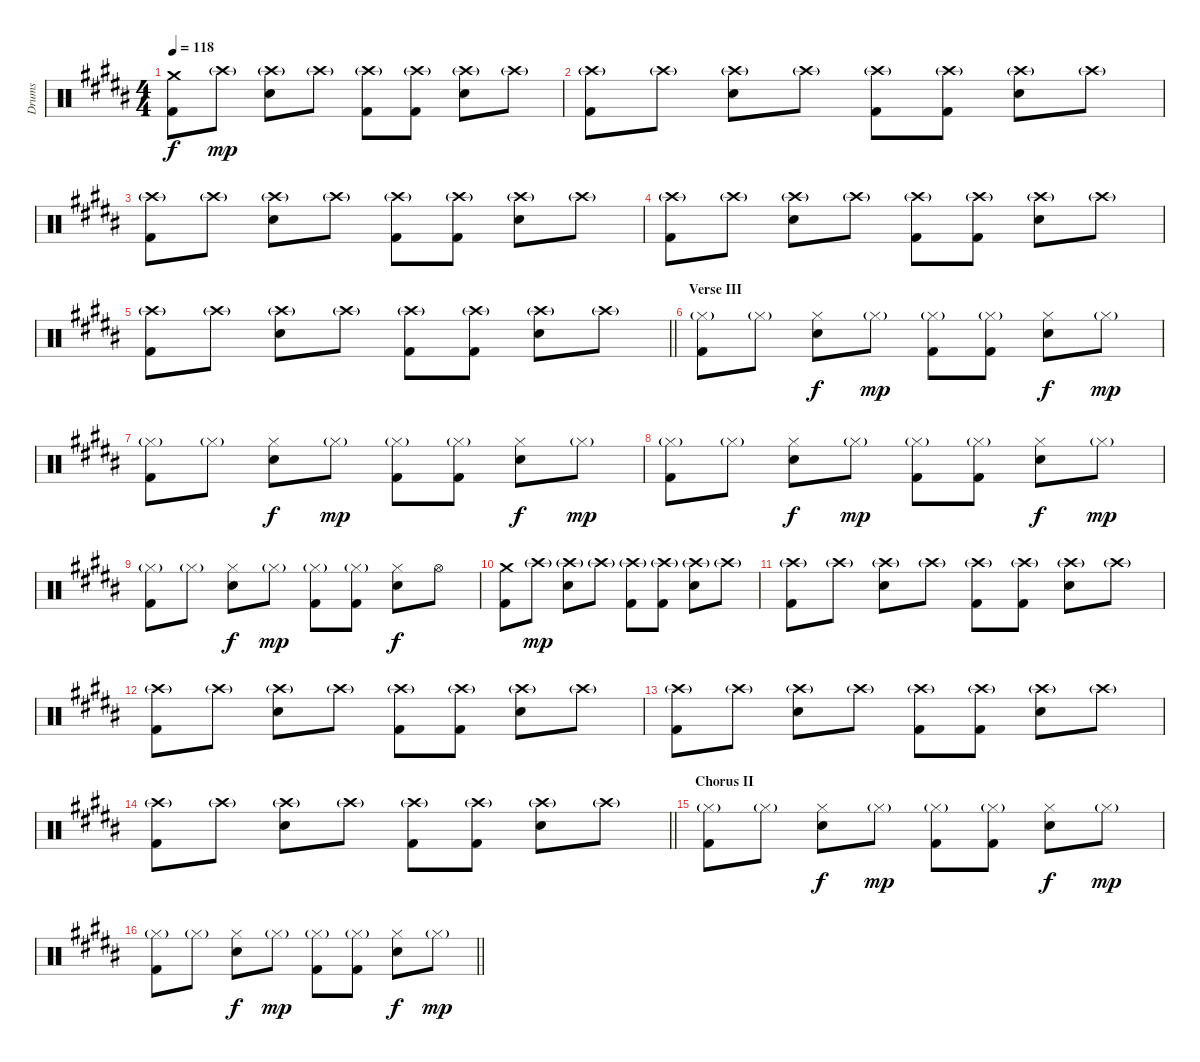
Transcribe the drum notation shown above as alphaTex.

\track ("Drums" "Drums") {instrument percussion}
\staff {score}
\articulation defaults
\ts (4 4)
\tempo 118
\clef neutral
\ks b
("Crash medium (hit)" "Kick (hit) 2").8{dy f} "Crash high (hit)"{g}.8{dy mp} ("Crash high (hit)"{g} "Snare (hit) 2").8 "Crash high (hit)"{g}.8 ("Crash high (hit)"{g} "Kick (hit) 2").8 ("Crash high (hit)"{g} "Kick (hit) 2").8 ("Crash high (hit)"{g} "Snare (hit) 2").8 "Crash high (hit)"{g}.8 |
("Crash high (hit)"{g} "Kick (hit) 2").8 "Crash high (hit)"{g}.8 ("Crash high (hit)"{g} "Snare (hit) 2").8 "Crash high (hit)"{g}.8 ("Crash high (hit)"{g} "Kick (hit) 2").8 ("Crash high (hit)"{g} "Kick (hit) 2").8 ("Crash high (hit)"{g} "Snare (hit) 2").8 "Crash high (hit)"{g}.8 |
("Crash high (hit)"{g} "Kick (hit) 2").8 "Crash high (hit)"{g}.8 ("Crash high (hit)"{g} "Snare (hit) 2").8 "Crash high (hit)"{g}.8 ("Crash high (hit)"{g} "Kick (hit) 2").8 ("Crash high (hit)"{g} "Kick (hit) 2").8 ("Crash high (hit)"{g} "Snare (hit) 2").8 "Crash high (hit)"{g}.8 |
("Crash high (hit)"{g} "Kick (hit) 2").8 "Crash high (hit)"{g}.8 ("Crash high (hit)"{g} "Snare (hit) 2").8 "Crash high (hit)"{g}.8 ("Crash high (hit)"{g} "Kick (hit) 2").8 ("Crash high (hit)"{g} "Kick (hit) 2").8 ("Crash high (hit)"{g} "Snare (hit) 2").8 "Crash high (hit)"{g}.8 |
\barLineRight lightlight
("Crash high (hit)"{g} "Kick (hit) 2").8 "Crash high (hit)"{g}.8 ("Crash high (hit)"{g} "Snare (hit) 2").8 "Crash high (hit)"{g}.8 ("Crash high (hit)"{g} "Kick (hit) 2").8 ("Crash high (hit)"{g} "Kick (hit) 2").8 ("Crash high (hit)"{g} "Snare (hit) 2").8 "Crash high (hit)"{g}.8 |
\section ("" "Verse III")
("Hi-Hat (closed)"{g} "Kick (hit) 2").8 "Hi-Hat (closed)"{g}.8 ("Hi-Hat (closed)" "Snare (hit) 2").8{dy f} "Hi-Hat (closed)"{g}.8{dy mp} ("Hi-Hat (closed)"{g} "Kick (hit) 2").8 ("Hi-Hat (closed)"{g} "Kick (hit) 2").8 ("Hi-Hat (closed)" "Snare (hit) 2").8{dy f} "Hi-Hat (closed)"{g}.8{dy mp} |
("Hi-Hat (closed)"{g} "Kick (hit) 2").8 "Hi-Hat (closed)"{g}.8 ("Hi-Hat (closed)" "Snare (hit) 2").8{dy f} "Hi-Hat (closed)"{g}.8{dy mp} ("Hi-Hat (closed)"{g} "Kick (hit) 2").8 ("Hi-Hat (closed)"{g} "Kick (hit) 2").8 ("Hi-Hat (closed)" "Snare (hit) 2").8{dy f} "Hi-Hat (closed)"{g}.8{dy mp} |
("Hi-Hat (closed)"{g} "Kick (hit) 2").8 "Hi-Hat (closed)"{g}.8 ("Hi-Hat (closed)" "Snare (hit) 2").8{dy f} "Hi-Hat (closed)"{g}.8{dy mp} ("Hi-Hat (closed)"{g} "Kick (hit) 2").8 ("Hi-Hat (closed)"{g} "Kick (hit) 2").8 ("Hi-Hat (closed)" "Snare (hit) 2").8{dy f} "Hi-Hat (closed)"{g}.8{dy mp} |
("Hi-Hat (closed)"{g} "Kick (hit) 2").8 "Hi-Hat (closed)"{g}.8 ("Hi-Hat (closed)" "Snare (hit) 2").8{dy f} "Hi-Hat (closed)"{g}.8{dy mp} ("Hi-Hat (closed)"{g} "Kick (hit) 2").8 ("Hi-Hat (closed)"{g} "Kick (hit) 2").8 ("Hi-Hat (closed)" "Snare (hit) 2").8{dy f} "Hi-Hat (open)".8 |
("Crash medium (hit)" "Kick (hit) 2").8 "Crash high (hit)"{g}.8{dy mp} ("Crash high (hit)"{g} "Snare (hit) 2").8 "Crash high (hit)"{g}.8 ("Crash high (hit)"{g} "Kick (hit) 2").8 ("Crash high (hit)"{g} "Kick (hit) 2").8 ("Crash high (hit)"{g} "Snare (hit) 2").8 "Crash high (hit)"{g}.8 |
("Crash high (hit)"{g} "Kick (hit) 2").8 "Crash high (hit)"{g}.8 ("Crash high (hit)"{g} "Snare (hit) 2").8 "Crash high (hit)"{g}.8 ("Crash high (hit)"{g} "Kick (hit) 2").8 ("Crash high (hit)"{g} "Kick (hit) 2").8 ("Crash high (hit)"{g} "Snare (hit) 2").8 "Crash high (hit)"{g}.8 |
("Crash high (hit)"{g} "Kick (hit) 2").8 "Crash high (hit)"{g}.8 ("Crash high (hit)"{g} "Snare (hit) 2").8 "Crash high (hit)"{g}.8 ("Crash high (hit)"{g} "Kick (hit) 2").8 ("Crash high (hit)"{g} "Kick (hit) 2").8 ("Crash high (hit)"{g} "Snare (hit) 2").8 "Crash high (hit)"{g}.8 |
("Crash high (hit)"{g} "Kick (hit) 2").8 "Crash high (hit)"{g}.8 ("Crash high (hit)"{g} "Snare (hit) 2").8 "Crash high (hit)"{g}.8 ("Crash high (hit)"{g} "Kick (hit) 2").8 ("Crash high (hit)"{g} "Kick (hit) 2").8 ("Crash high (hit)"{g} "Snare (hit) 2").8 "Crash high (hit)"{g}.8 |
\barLineRight lightlight
("Crash high (hit)"{g} "Kick (hit) 2").8 "Crash high (hit)"{g}.8 ("Crash high (hit)"{g} "Snare (hit) 2").8 "Crash high (hit)"{g}.8 ("Crash high (hit)"{g} "Kick (hit) 2").8 ("Crash high (hit)"{g} "Kick (hit) 2").8 ("Crash high (hit)"{g} "Snare (hit) 2").8 "Crash high (hit)"{g}.8 |
\section ("" "Chorus II")
("Hi-Hat (closed)"{g} "Kick (hit) 2").8 "Hi-Hat (closed)"{g}.8 ("Hi-Hat (closed)" "Snare (hit) 2").8{dy f} "Hi-Hat (closed)"{g}.8{dy mp} ("Hi-Hat (closed)"{g} "Kick (hit) 2").8 ("Hi-Hat (closed)"{g} "Kick (hit) 2").8 ("Hi-Hat (closed)" "Snare (hit) 2").8{dy f} "Hi-Hat (closed)"{g}.8{dy mp} |
\barLineRight lightlight
("Hi-Hat (closed)"{g} "Kick (hit) 2").8 "Hi-Hat (closed)"{g}.8 ("Hi-Hat (closed)" "Snare (hit) 2").8{dy f} "Hi-Hat (closed)"{g}.8{dy mp} ("Hi-Hat (closed)"{g} "Kick (hit) 2").8 ("Hi-Hat (closed)"{g} "Kick (hit) 2").8 ("Hi-Hat (closed)" "Snare (hit) 2").8{dy f} "Hi-Hat (closed)"{g}.8{dy mp}
